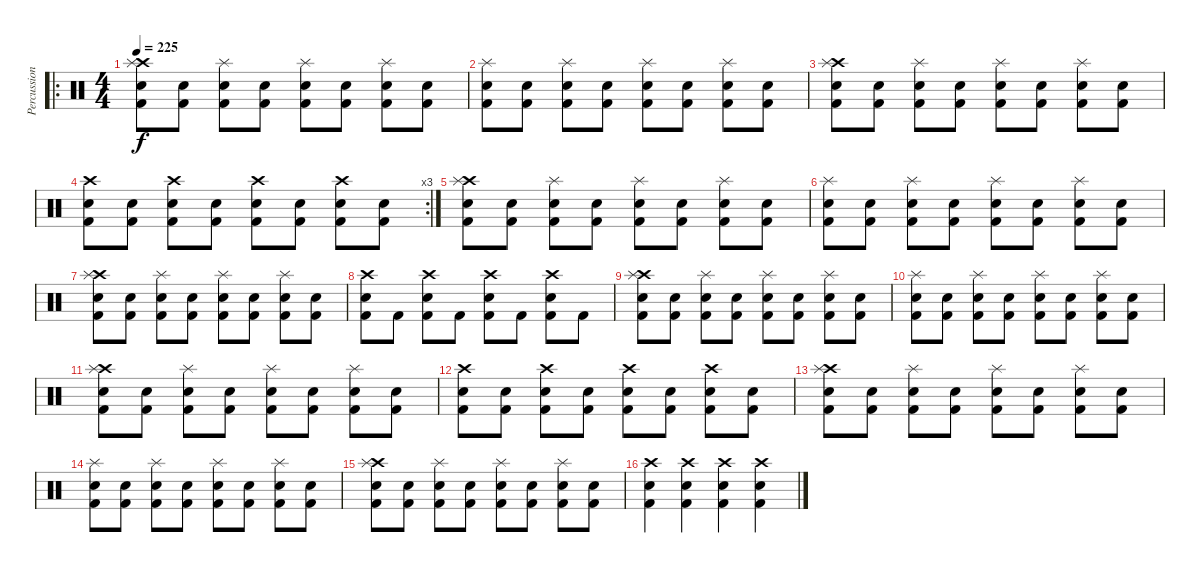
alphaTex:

\track ("Percussions" "Percussion") {instrument percussion}
\staff {score}
\articulation defaults
\ro
\ts (4 4)
\tempo 225
\clef neutral
\ks c
("Crash high (hit)" "Kick (hit) 2" "Snare (hit) 2" "Splash (hit)").8{dy f} ("Kick (hit) 2" "Snare (hit) 2").8 ("Kick (hit) 2" "Snare (hit) 2" "Splash (hit)").8 ("Kick (hit) 2" "Snare (hit) 2").8 ("Kick (hit) 2" "Snare (hit) 2" "Splash (hit)").8 ("Kick (hit) 2" "Snare (hit) 2").8 ("Kick (hit) 2" "Snare (hit) 2" "Splash (hit)").8 ("Kick (hit) 2" "Snare (hit) 2").8 |
("Kick (hit) 2" "Snare (hit) 2" "Splash (hit)").8 ("Kick (hit) 2" "Snare (hit) 2").8 ("Kick (hit) 2" "Snare (hit) 2" "Splash (hit)").8 ("Kick (hit) 2" "Snare (hit) 2").8 ("Kick (hit) 2" "Snare (hit) 2" "Splash (hit)").8 ("Kick (hit) 2" "Snare (hit) 2").8 ("Kick (hit) 2" "Snare (hit) 2" "Splash (hit)").8 ("Kick (hit) 2" "Snare (hit) 2").8 |
("Crash high (hit)" "Kick (hit) 2" "Snare (hit) 2" "Splash (hit)").8 ("Kick (hit) 2" "Snare (hit) 2").8 ("Kick (hit) 2" "Snare (hit) 2" "Splash (hit)").8 ("Kick (hit) 2" "Snare (hit) 2").8 ("Kick (hit) 2" "Snare (hit) 2" "Splash (hit)").8 ("Kick (hit) 2" "Snare (hit) 2").8 ("Kick (hit) 2" "Snare (hit) 2" "Splash (hit)").8 ("Kick (hit) 2" "Snare (hit) 2").8 |
\rc 3
("Crash high (hit)" "Kick (hit) 2" "Snare (hit) 2").8 ("Kick (hit) 2" "Snare (hit) 2").8 ("Crash high (hit)" "Kick (hit) 2" "Snare (hit) 2").8 ("Kick (hit) 2" "Snare (hit) 2").8 ("Crash high (hit)" "Kick (hit) 2" "Snare (hit) 2").8 ("Kick (hit) 2" "Snare (hit) 2").8 ("Crash high (hit)" "Kick (hit) 2" "Snare (hit) 2").8 ("Kick (hit) 2" "Snare (hit) 2").8 |
("Crash high (hit)" "Kick (hit) 2" "Snare (hit) 2" "Splash (hit)").8 ("Kick (hit) 2" "Snare (hit) 2").8 ("Kick (hit) 2" "Snare (hit) 2" "Splash (hit)").8 ("Kick (hit) 2" "Snare (hit) 2").8 ("Kick (hit) 2" "Snare (hit) 2" "Splash (hit)").8 ("Kick (hit) 2" "Snare (hit) 2").8 ("Kick (hit) 2" "Snare (hit) 2" "Splash (hit)").8 ("Kick (hit) 2" "Snare (hit) 2").8 |
("Kick (hit) 2" "Snare (hit) 2" "Splash (hit)").8 ("Kick (hit) 2" "Snare (hit) 2").8 ("Kick (hit) 2" "Snare (hit) 2" "Splash (hit)").8 ("Kick (hit) 2" "Snare (hit) 2").8 ("Kick (hit) 2" "Snare (hit) 2" "Splash (hit)").8 ("Kick (hit) 2" "Snare (hit) 2").8 ("Kick (hit) 2" "Snare (hit) 2" "Splash (hit)").8 ("Kick (hit) 2" "Snare (hit) 2").8 |
("Crash high (hit)" "Kick (hit) 2" "Snare (hit) 2" "Splash (hit)").8 ("Kick (hit) 2" "Snare (hit) 2").8 ("Kick (hit) 2" "Snare (hit) 2" "Splash (hit)").8 ("Kick (hit) 2" "Snare (hit) 2").8 ("Kick (hit) 2" "Snare (hit) 2" "Splash (hit)").8 ("Kick (hit) 2" "Snare (hit) 2").8 ("Kick (hit) 2" "Snare (hit) 2" "Splash (hit)").8 ("Kick (hit) 2" "Snare (hit) 2").8 |
("Crash high (hit)" "Kick (hit) 2" "Snare (hit) 2").8 "Kick (hit) 2".8 ("Crash high (hit)" "Kick (hit) 2" "Snare (hit) 2").8 "Kick (hit) 2".8 ("Crash high (hit)" "Kick (hit) 2" "Snare (hit) 2").8 "Kick (hit) 2".8 ("Crash high (hit)" "Kick (hit) 2" "Snare (hit) 2").8 "Kick (hit) 2".8 |
("Crash high (hit)" "Kick (hit) 2" "Snare (hit) 2" "Splash (hit)").8 ("Kick (hit) 2" "Snare (hit) 2").8 ("Kick (hit) 2" "Snare (hit) 2" "Splash (hit)").8 ("Kick (hit) 2" "Snare (hit) 2").8 ("Kick (hit) 2" "Snare (hit) 2" "Splash (hit)").8 ("Kick (hit) 2" "Snare (hit) 2").8 ("Kick (hit) 2" "Snare (hit) 2" "Splash (hit)").8 ("Kick (hit) 2" "Snare (hit) 2").8 |
("Kick (hit) 2" "Snare (hit) 2" "Splash (hit)").8 ("Kick (hit) 2" "Snare (hit) 2").8 ("Kick (hit) 2" "Snare (hit) 2" "Splash (hit)").8 ("Kick (hit) 2" "Snare (hit) 2").8 ("Kick (hit) 2" "Snare (hit) 2" "Splash (hit)").8 ("Kick (hit) 2" "Snare (hit) 2").8 ("Kick (hit) 2" "Snare (hit) 2" "Splash (hit)").8 ("Kick (hit) 2" "Snare (hit) 2").8 |
("Crash high (hit)" "Kick (hit) 2" "Snare (hit) 2" "Splash (hit)").8 ("Kick (hit) 2" "Snare (hit) 2").8 ("Kick (hit) 2" "Snare (hit) 2" "Splash (hit)").8 ("Kick (hit) 2" "Snare (hit) 2").8 ("Kick (hit) 2" "Snare (hit) 2" "Splash (hit)").8 ("Kick (hit) 2" "Snare (hit) 2").8 ("Kick (hit) 2" "Snare (hit) 2" "Splash (hit)").8 ("Kick (hit) 2" "Snare (hit) 2").8 |
("Crash high (hit)" "Kick (hit) 2" "Snare (hit) 2").8 ("Kick (hit) 2" "Snare (hit) 2").8 ("Crash high (hit)" "Kick (hit) 2" "Snare (hit) 2").8 ("Kick (hit) 2" "Snare (hit) 2").8 ("Crash high (hit)" "Kick (hit) 2" "Snare (hit) 2").8 ("Kick (hit) 2" "Snare (hit) 2").8 ("Crash high (hit)" "Kick (hit) 2" "Snare (hit) 2").8 ("Kick (hit) 2" "Snare (hit) 2").8 |
("Crash high (hit)" "Kick (hit) 2" "Snare (hit) 2" "Splash (hit)").8 ("Kick (hit) 2" "Snare (hit) 2").8 ("Kick (hit) 2" "Snare (hit) 2" "Splash (hit)").8 ("Kick (hit) 2" "Snare (hit) 2").8 ("Kick (hit) 2" "Snare (hit) 2" "Splash (hit)").8 ("Kick (hit) 2" "Snare (hit) 2").8 ("Kick (hit) 2" "Snare (hit) 2" "Splash (hit)").8 ("Kick (hit) 2" "Snare (hit) 2").8 |
("Kick (hit) 2" "Snare (hit) 2" "Splash (hit)").8 ("Kick (hit) 2" "Snare (hit) 2").8 ("Kick (hit) 2" "Snare (hit) 2" "Splash (hit)").8 ("Kick (hit) 2" "Snare (hit) 2").8 ("Kick (hit) 2" "Snare (hit) 2" "Splash (hit)").8 ("Kick (hit) 2" "Snare (hit) 2").8 ("Kick (hit) 2" "Snare (hit) 2" "Splash (hit)").8 ("Kick (hit) 2" "Snare (hit) 2").8 |
("Crash high (hit)" "Kick (hit) 2" "Snare (hit) 2" "Splash (hit)").8 ("Kick (hit) 2" "Snare (hit) 2").8 ("Kick (hit) 2" "Snare (hit) 2" "Splash (hit)").8 ("Kick (hit) 2" "Snare (hit) 2").8 ("Kick (hit) 2" "Snare (hit) 2" "Splash (hit)").8 ("Kick (hit) 2" "Snare (hit) 2").8 ("Kick (hit) 2" "Snare (hit) 2" "Splash (hit)").8 ("Kick (hit) 2" "Snare (hit) 2").8 |
("Crash high (hit)" "Kick (hit) 2" "Snare (hit) 2").4 ("Crash high (hit)" "Kick (hit) 2" "Snare (hit) 2").4 ("Crash high (hit)" "Kick (hit) 2" "Snare (hit) 2").4 ("Crash high (hit)" "Kick (hit) 2" "Snare (hit) 2").4
